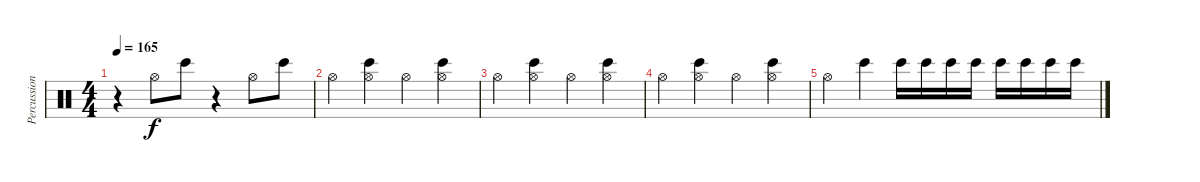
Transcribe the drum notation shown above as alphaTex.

\track ("Percussion" "Percussion") {instrument percussion}
\staff {score}
\articulation defaults
\ts (4 4)
\tempo 165
\clef neutral
\ks c
r.4{dy f} "Hi-Hat (open)".8 "Bongo High (hit)".8 r.4 "Hi-Hat (open)".8 "Bongo High (hit)".8 |
"Hi-Hat (open)".4 ("Bongo High (hit)" "Hi-Hat (open)").4 "Hi-Hat (open)".4 ("Bongo High (hit)" "Hi-Hat (open)").4 |
"Hi-Hat (open)".4 ("Bongo High (hit)" "Hi-Hat (open)").4 "Hi-Hat (open)".4 ("Bongo High (hit)" "Hi-Hat (open)").4 |
"Hi-Hat (open)".4 ("Bongo High (hit)" "Hi-Hat (open)").4 "Hi-Hat (open)".4 ("Bongo High (hit)" "Hi-Hat (open)").4 |
"Hi-Hat (open)".4 "Bongo High (hit)".4 "Bongo High (hit)".16 "Bongo High (hit)".16 "Bongo High (hit)".16 "Bongo High (hit)".16 "Bongo High (hit)".16 "Bongo High (hit)".16 "Bongo High (hit)".16 "Bongo High (hit)".16
